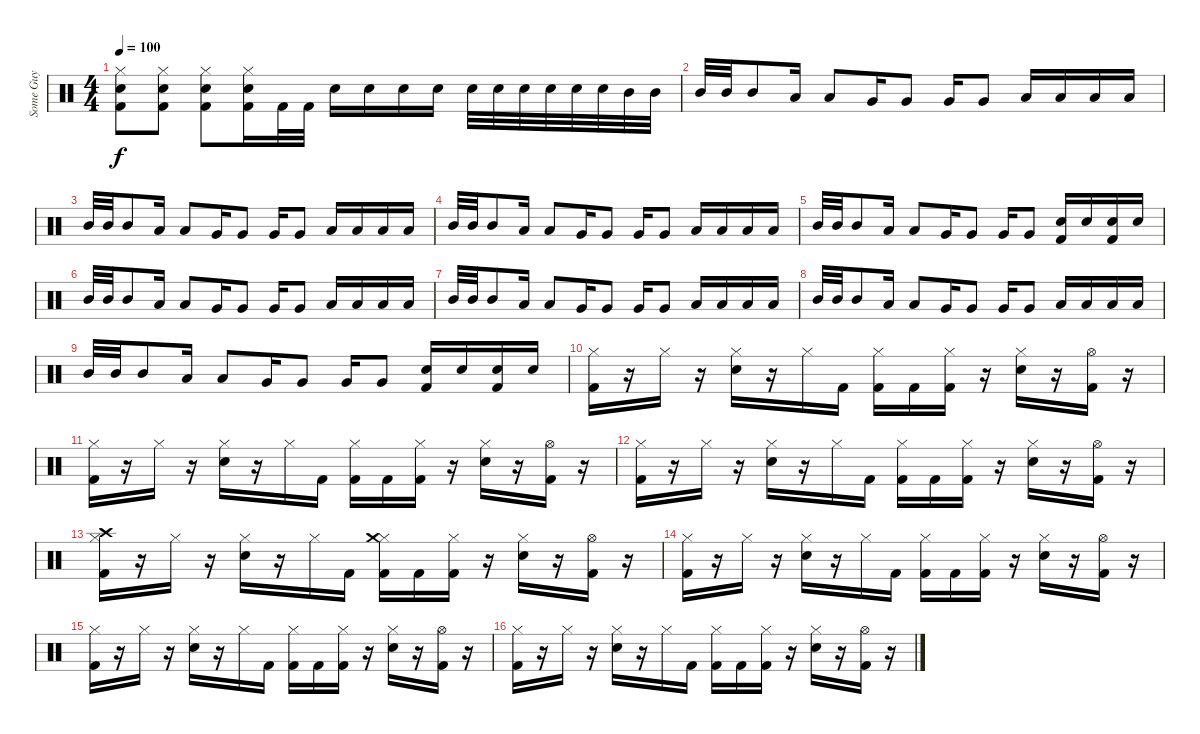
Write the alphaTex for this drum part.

\track ("Some Guy" "Some Guy") {instrument percussion}
\staff {score}
\articulation defaults
\ts (4 4)
\tempo 100
\clef neutral
\ks c
("Hi-Hat (closed)" "Kick (hit) 2" "Snare (hit) 2").8{dy f} ("Hi-Hat (closed)" "Kick (hit) 2" "Snare (hit) 2").8 ("Hi-Hat (closed)" "Kick (hit) 2" "Snare (hit) 2").8 ("Hi-Hat (closed)" "Kick (hit) 2" "Snare (hit) 2").16 "Kick (hit) 2".32 "Kick (hit) 2".32 "Snare (hit) 2".16 "Snare (hit) 2".16 "Snare (hit) 2".16 "Snare (hit) 2".16 "Snare (hit) 2".32 "Snare (hit) 2".32 "Snare (hit) 2".32 "Snare (hit) 2".32 "Snare (hit) 2".32 "Snare (hit) 2".32 "Mid Tom (hit)".32 "Mid Tom (hit)".32 |
"Mid Tom (hit)".32 "Mid Tom (hit)".32 "Mid Tom (hit)".8 "Low Tom (hit)".16 "Low Tom (hit)".8 "Very Low Tom (hit)".16 "Very Low Tom (hit)".8 "Very Low Tom (hit)".16 "Very Low Tom (hit)".8 "Low Floor Tom (hit)".16 "Low Floor Tom (hit)".16 "Low Floor Tom (hit)".16 "Low Floor Tom (hit)".16 |
"Mid Tom (hit)".32 "Mid Tom (hit)".32 "Mid Tom (hit)".8 "Low Tom (hit)".16 "Low Tom (hit)".8 "Very Low Tom (hit)".16 "Very Low Tom (hit)".8 "Very Low Tom (hit)".16 "Very Low Tom (hit)".8 "Low Floor Tom (hit)".16 "Low Floor Tom (hit)".16 "Low Floor Tom (hit)".16 "Low Floor Tom (hit)".16 |
"Mid Tom (hit)".32 "Mid Tom (hit)".32 "Mid Tom (hit)".8 "Low Tom (hit)".16 "Low Tom (hit)".8 "Very Low Tom (hit)".16 "Very Low Tom (hit)".8 "Very Low Tom (hit)".16 "Very Low Tom (hit)".8 "Low Floor Tom (hit)".16 "Low Floor Tom (hit)".16 "Low Floor Tom (hit)".16 "Low Floor Tom (hit)".16 |
"Mid Tom (hit)".32 "Mid Tom (hit)".32 "Mid Tom (hit)".8 "Low Tom (hit)".16 "Low Tom (hit)".8 "Very Low Tom (hit)".16 "Very Low Tom (hit)".8 "Very Low Tom (hit)".16 "Very Low Tom (hit)".8 ("Snare (hit) 2" "Kick (hit) 2").16 "Snare (hit) 2".16 ("Snare (hit) 2" "Kick (hit) 2").16 "Snare (hit) 2".16 |
"Mid Tom (hit)".32 "Mid Tom (hit)".32 "Mid Tom (hit)".8 "Low Tom (hit)".16 "Low Tom (hit)".8 "Very Low Tom (hit)".16 "Very Low Tom (hit)".8 "Very Low Tom (hit)".16 "Very Low Tom (hit)".8 "Low Floor Tom (hit)".16 "Low Floor Tom (hit)".16 "Low Floor Tom (hit)".16 "Low Floor Tom (hit)".16 |
"Mid Tom (hit)".32 "Mid Tom (hit)".32 "Mid Tom (hit)".8 "Low Tom (hit)".16 "Low Tom (hit)".8 "Very Low Tom (hit)".16 "Very Low Tom (hit)".8 "Very Low Tom (hit)".16 "Very Low Tom (hit)".8 "Low Floor Tom (hit)".16 "Low Floor Tom (hit)".16 "Low Floor Tom (hit)".16 "Low Floor Tom (hit)".16 |
"Mid Tom (hit)".32 "Mid Tom (hit)".32 "Mid Tom (hit)".8 "Low Tom (hit)".16 "Low Tom (hit)".8 "Very Low Tom (hit)".16 "Very Low Tom (hit)".8 "Very Low Tom (hit)".16 "Very Low Tom (hit)".8 "Low Floor Tom (hit)".16 "Low Floor Tom (hit)".16 "Low Floor Tom (hit)".16 "Low Floor Tom (hit)".16 |
"Mid Tom (hit)".32 "Mid Tom (hit)".32 "Mid Tom (hit)".8 "Low Tom (hit)".16 "Low Tom (hit)".8 "Very Low Tom (hit)".16 "Very Low Tom (hit)".8 "Very Low Tom (hit)".16 "Very Low Tom (hit)".8 ("Snare (hit) 2" "Kick (hit) 2").16 "Snare (hit) 2".16 ("Snare (hit) 2" "Kick (hit) 2").16 "Snare (hit) 2".16 |
("Hi-Hat (closed)" "Kick (hit) 2").16 r.16 "Hi-Hat (closed)".16 r.16 ("Hi-Hat (closed)" "Snare (hit) 2").16 r.16 "Hi-Hat (closed)".16 "Kick (hit) 2".16 ("Hi-Hat (closed)" "Kick (hit) 2").16 "Kick (hit) 2".16 ("Hi-Hat (closed)" "Kick (hit) 2").16 r.16 ("Hi-Hat (closed)" "Snare (hit) 2").16 r.16 ("Hi-Hat (open)" "Kick (hit) 2").16 r.16 |
("Hi-Hat (closed)" "Kick (hit) 2").16 r.16 "Hi-Hat (closed)".16 r.16 ("Hi-Hat (closed)" "Snare (hit) 2").16 r.16 "Hi-Hat (closed)".16 "Kick (hit) 2".16 ("Hi-Hat (closed)" "Kick (hit) 2").16 "Kick (hit) 2".16 ("Hi-Hat (closed)" "Kick (hit) 2").16 r.16 ("Hi-Hat (closed)" "Snare (hit) 2").16 r.16 ("Hi-Hat (open)" "Kick (hit) 2").16 r.16 |
("Hi-Hat (closed)" "Kick (hit) 2").16 r.16 "Hi-Hat (closed)".16 r.16 ("Hi-Hat (closed)" "Snare (hit) 2").16 r.16 "Hi-Hat (closed)".16 "Kick (hit) 2".16 ("Hi-Hat (closed)" "Kick (hit) 2").16 "Kick (hit) 2".16 ("Hi-Hat (closed)" "Kick (hit) 2").16 r.16 ("Hi-Hat (closed)" "Snare (hit) 2").16 r.16 ("Hi-Hat (open)" "Kick (hit) 2").16 r.16 |
("Hi-Hat (closed)" "Kick (hit) 2" "Crash high (hit)").16 r.16 "Hi-Hat (closed)".16 r.16 ("Hi-Hat (closed)" "Snare (hit) 2").16 r.16 "Hi-Hat (closed)".16 "Kick (hit) 2".16 ("Hi-Hat (closed)" "Kick (hit) 2" "Crash medium (hit)").16 "Kick (hit) 2".16 ("Hi-Hat (closed)" "Kick (hit) 2").16 r.16 ("Hi-Hat (closed)" "Snare (hit) 2").16 r.16 ("Hi-Hat (open)" "Kick (hit) 2").16 r.16 |
("Hi-Hat (closed)" "Kick (hit) 2").16 r.16 "Hi-Hat (closed)".16 r.16 ("Hi-Hat (closed)" "Snare (hit) 2").16 r.16 "Hi-Hat (closed)".16 "Kick (hit) 2".16 ("Hi-Hat (closed)" "Kick (hit) 2").16 "Kick (hit) 2".16 ("Hi-Hat (closed)" "Kick (hit) 2").16 r.16 ("Hi-Hat (closed)" "Snare (hit) 2").16 r.16 ("Hi-Hat (open)" "Kick (hit) 2").16 r.16 |
("Hi-Hat (closed)" "Kick (hit) 2").16 r.16 "Hi-Hat (closed)".16 r.16 ("Hi-Hat (closed)" "Snare (hit) 2").16 r.16 "Hi-Hat (closed)".16 "Kick (hit) 2".16 ("Hi-Hat (closed)" "Kick (hit) 2").16 "Kick (hit) 2".16 ("Hi-Hat (closed)" "Kick (hit) 2").16 r.16 ("Hi-Hat (closed)" "Snare (hit) 2").16 r.16 ("Hi-Hat (open)" "Kick (hit) 2").16 r.16 |
("Hi-Hat (closed)" "Kick (hit) 2").16 r.16 "Hi-Hat (closed)".16 r.16 ("Hi-Hat (closed)" "Snare (hit) 2").16 r.16 "Hi-Hat (closed)".16 "Kick (hit) 2".16 ("Hi-Hat (closed)" "Kick (hit) 2").16 "Kick (hit) 2".16 ("Hi-Hat (closed)" "Kick (hit) 2").16 r.16 ("Hi-Hat (closed)" "Snare (hit) 2").16 r.16 ("Hi-Hat (open)" "Kick (hit) 2").16 r.16
